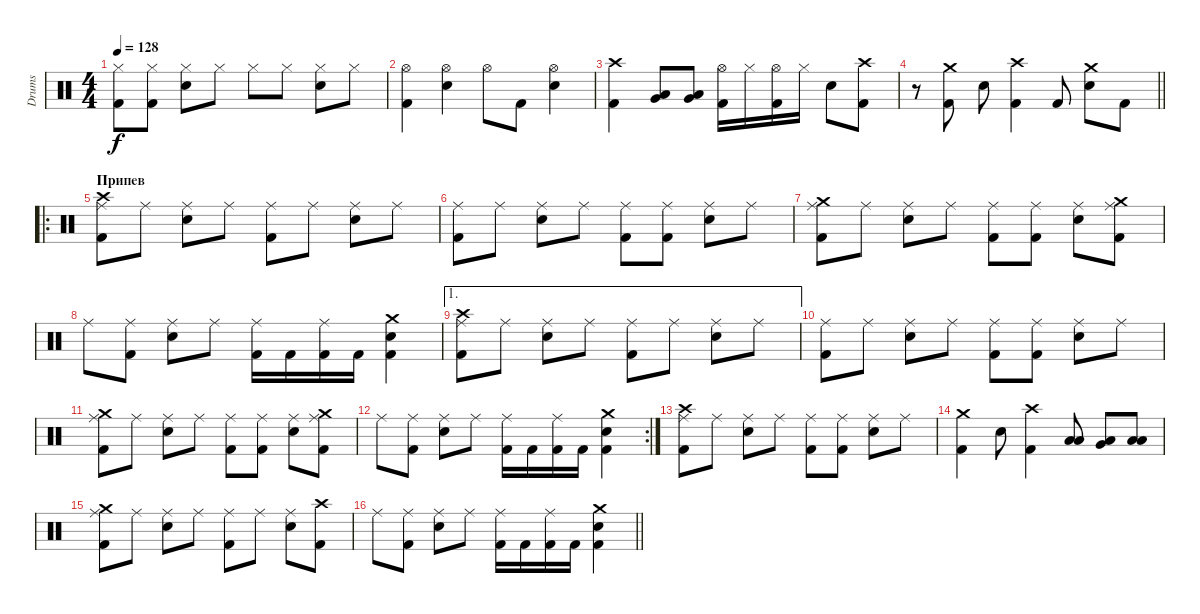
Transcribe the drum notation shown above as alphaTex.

\track ("Drums" "Drums") {instrument percussion}
\staff {score}
\articulation defaults
\ts (4 4)
\tempo 128
\clef neutral
\ks c
("Kick (hit) 2" "Hi-Hat (closed)").8{dy f} ("Kick (hit) 2" "Hi-Hat (closed)").8 ("Electric Snare (hit)" "Hi-Hat (closed)").8 "Hi-Hat (closed)".8 "Hi-Hat (closed)".8 "Hi-Hat (closed)".8 ("Electric Snare (hit)" "Hi-Hat (closed)").8 "Hi-Hat (closed)".8 |
("Kick (hit) 2" "Hi-Hat (open)").4 ("Electric Snare (hit)" "Hi-Hat (open)").4 "Hi-Hat (open)".8 "Kick (hit) 2".8 ("Electric Snare (hit)" "Hi-Hat (open)").4 |
("Kick (hit) 2" "Crash high (hit)").4 ("Very Low Tom (hit)" "Low Floor Tom (hit)").8 ("Very Low Tom (hit)" "Low Floor Tom (hit)").8 ("Kick (hit) 2" "Hi-Hat (open)").16 "Hi-Hat (closed)".16 ("Kick (hit) 2" "Hi-Hat (open)").16 "Hi-Hat (closed)".16 "Electric Snare (hit)".8 ("Kick (hit) 2" "Crash high (hit)").8 |
\barLineRight lightlight
r.8 ("Kick (hit) 2" "Crash medium (hit)").8 "Electric Snare (hit)".8 ("Kick (hit) 2" "Crash high (hit)").4 "Kick (hit) 2".8 ("Electric Snare (hit)" "Crash medium (hit)").8 "Kick (hit) 2".8 |
\ro
\section ("" "Припев")
("Kick (hit) 2" "Ride (middle)" "Crash high (hit)").8 "Ride (middle)".8 ("Electric Snare (hit)" "Ride (middle)").8 "Ride (middle)".8 ("Kick (hit) 2" "Ride (middle)").8 "Ride (middle)".8 ("Electric Snare (hit)" "Ride (middle)").8 "Ride (middle)".8 |
("Kick (hit) 2" "Ride (middle)").8 "Ride (middle)".8 ("Electric Snare (hit)" "Ride (middle)").8 "Ride (middle)".8 ("Kick (hit) 2" "Ride (middle)").8 ("Kick (hit) 2" "Ride (middle)").8 ("Electric Snare (hit)" "Ride (middle)").8 "Ride (middle)".8 |
("Kick (hit) 2" "Ride (middle)" "Crash medium (hit)").8 "Ride (middle)".8 ("Electric Snare (hit)" "Ride (middle)").8 "Ride (middle)".8 ("Kick (hit) 2" "Ride (middle)").8 ("Kick (hit) 2" "Ride (middle)").8 ("Electric Snare (hit)" "Ride (middle)").8 ("Kick (hit) 2" "Ride (middle)" "Crash medium (hit)").8 |
"Ride (middle)".8 ("Kick (hit) 2" "Ride (middle)").8 ("Electric Snare (hit)" "Ride (middle)").8 "Ride (middle)".8 ("Kick (hit) 2" "Ride (middle)").16 "Kick (hit) 2".16 ("Kick (hit) 2" "Ride (middle)").16 "Kick (hit) 2".16 ("Kick (hit) 2" "Electric Snare (hit)" "Crash medium (hit)").4 |
\ae 1
("Kick (hit) 2" "Ride (middle)" "Crash high (hit)").8 "Ride (middle)".8 ("Electric Snare (hit)" "Ride (middle)").8 "Ride (middle)".8 ("Kick (hit) 2" "Ride (middle)").8 "Ride (middle)".8 ("Electric Snare (hit)" "Ride (middle)").8 "Ride (middle)".8 |
("Kick (hit) 2" "Ride (middle)").8 "Ride (middle)".8 ("Electric Snare (hit)" "Ride (middle)").8 "Ride (middle)".8 ("Kick (hit) 2" "Ride (middle)").8 ("Kick (hit) 2" "Ride (middle)").8 ("Electric Snare (hit)" "Ride (middle)").8 "Ride (middle)".8 |
("Kick (hit) 2" "Ride (middle)" "Crash medium (hit)").8 "Ride (middle)".8 ("Electric Snare (hit)" "Ride (middle)").8 "Ride (middle)".8 ("Kick (hit) 2" "Ride (middle)").8 ("Kick (hit) 2" "Ride (middle)").8 ("Electric Snare (hit)" "Ride (middle)").8 ("Kick (hit) 2" "Ride (middle)" "Crash medium (hit)").8 |
\rc 2 "Ride (middle)".8
("Kick (hit) 2" "Ride (middle)").8 ("Electric Snare (hit)" "Ride (middle)").8 "Ride (middle)".8 ("Kick (hit) 2" "Ride (middle)").16 "Kick (hit) 2".16 ("Kick (hit) 2" "Ride (middle)").16 "Kick (hit) 2".16 ("Kick (hit) 2" "Electric Snare (hit)" "Crash medium (hit)").4 |
("Kick (hit) 2" "Ride (middle)" "Crash high (hit)").8 "Ride (middle)".8 ("Electric Snare (hit)" "Ride (middle)").8 "Ride (middle)".8 ("Kick (hit) 2" "Ride (middle)").8 ("Kick (hit) 2" "Ride (middle)").8 ("Electric Snare (hit)" "Ride (middle)").8 "Ride (middle)".8 |
("Kick (hit) 2" "Crash medium (hit)").4 "Electric Snare (hit)".8 ("Kick (hit) 2" "Crash high (hit)").4 ("Low Floor Tom (hit)" "Low Tom (hit)").8 ("Low Floor Tom (hit)" "Very Low Tom (hit)").8 ("Low Floor Tom (hit)" "Low Floor Tom (hit)").8 |
("Kick (hit) 2" "Ride (middle)" "Crash medium (hit)").8 "Ride (middle)".8 ("Electric Snare (hit)" "Ride (middle)").8 "Ride (middle)".8 ("Kick (hit) 2" "Ride (middle)").8 "Ride (middle)".8 ("Electric Snare (hit)" "Ride (middle)").8 ("Kick (hit) 2" "Crash high (hit)").8 |
\barLineRight lightlight "Ride (middle)".8
("Kick (hit) 2" "Ride (middle)").8 ("Electric Snare (hit)" "Ride (middle)").8 "Ride (middle)".8 ("Kick (hit) 2" "Ride (middle)").16 "Kick (hit) 2".16 ("Kick (hit) 2" "Ride (middle)").16 "Kick (hit) 2".16 ("Kick (hit) 2" "Electric Snare (hit)" "Crash medium (hit)").4
